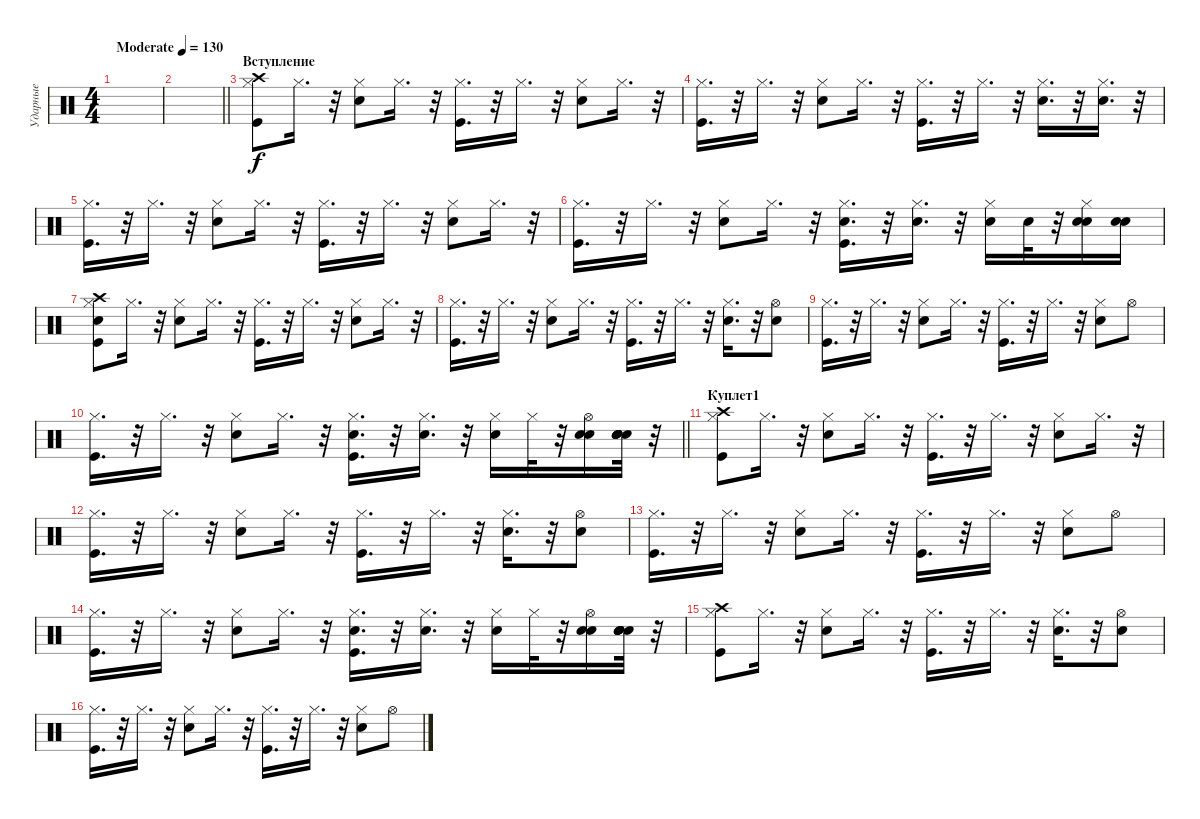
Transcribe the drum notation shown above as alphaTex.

\track ("Ударные" "Ударные") {instrument percussion}
\staff {score}
\articulation defaults
\ts (4 4)
\tempo (130 "Moderate")
\clef neutral
\ks c
|
\barLineRight lightlight
|
\section ("" "Вступление")
("Crash high (hit)" "Hi-Hat (closed)" "Kick (hit)").8 "Hi-Hat (closed)".16{d} r.32 ("Hi-Hat (closed)" "Snare (hit) 2").8 "Hi-Hat (closed)".16{d} r.32 ("Hi-Hat (closed)" "Kick (hit)").16{d} r.32 "Hi-Hat (closed)".16{d} r.32 ("Hi-Hat (closed)" "Snare (hit) 2").8 "Hi-Hat (closed)".16{d} r.32 |
("Hi-Hat (closed)" "Kick (hit)").16{d} r.32 "Hi-Hat (closed)".16{d} r.32 ("Snare (hit) 2" "Hi-Hat (closed)").8 "Hi-Hat (closed)".16{d} r.32 ("Hi-Hat (closed)" "Kick (hit)").16{d} r.32 "Hi-Hat (closed)".16{d} r.32 ("Snare (hit) 2" "Hi-Hat (closed)").16{d} r.32 ("Snare (hit) 2" "Hi-Hat (closed)").16{d} r.32 |
("Hi-Hat (closed)" "Kick (hit)").16{d} r.32 "Hi-Hat (closed)".16{d} r.32 ("Hi-Hat (closed)" "Snare (hit) 2").8 "Hi-Hat (closed)".16{d} r.32 ("Hi-Hat (closed)" "Kick (hit)").16{d} r.32 "Hi-Hat (closed)".16{d} r.32 ("Hi-Hat (closed)" "Snare (hit) 2").8 "Hi-Hat (closed)".16{d} r.32 |
("Hi-Hat (closed)" "Kick (hit)").16{d} r.32 "Hi-Hat (closed)".16{d} r.32 ("Snare (hit) 2" "Hi-Hat (closed)").8 "Hi-Hat (closed)".16{d} r.32 ("Snare (hit) 2" "Hi-Hat (closed)" "Kick (hit)").16{d} r.32 ("Snare (hit) 2" "Hi-Hat (closed)").16{d} r.32 ("Snare (hit) 2" "Hi-Hat (closed)").16 "Snare (hit) 2".32 r.32 ("Electric Snare (hit)" "Snare (hit) 2" "Hi-Hat (closed)").16 ("Electric Snare (hit)" "Snare (hit) 2").16 |
("Electric Snare (hit)" "Crash high (hit)" "Hi-Hat (closed)" "Kick (hit)").8 "Hi-Hat (closed)".16{d} r.32 ("Hi-Hat (closed)" "Snare (hit) 2").8 "Hi-Hat (closed)".16{d} r.32 ("Hi-Hat (closed)" "Kick (hit)").16{d} r.32 "Hi-Hat (closed)".16{d} r.32 ("Hi-Hat (closed)" "Snare (hit) 2").8 "Hi-Hat (closed)".16{d} r.32 |
("Hi-Hat (closed)" "Kick (hit)").16{d} r.32 "Hi-Hat (closed)".16{d} r.32 ("Hi-Hat (closed)" "Snare (hit) 2").8 "Hi-Hat (closed)".16{d} r.32 ("Hi-Hat (closed)" "Kick (hit)").16{d} r.32 "Hi-Hat (closed)".16{d} r.32 ("Hi-Hat (closed)" "Snare (hit) 2").16{d} r.32 ("Hi-Hat (open)" "Snare (hit) 2").8 |
("Hi-Hat (closed)" "Kick (hit)").16{d} r.32 "Hi-Hat (closed)".16{d} r.32 ("Hi-Hat (closed)" "Snare (hit) 2").8 "Hi-Hat (closed)".16{d} r.32 ("Hi-Hat (closed)" "Kick (hit)").16{d} r.32 "Hi-Hat (closed)".16{d} r.32 ("Hi-Hat (closed)" "Snare (hit) 2").8 "Hi-Hat (open)".8 |
\barLineRight lightlight
("Hi-Hat (closed)" "Kick (hit)").16{d} r.32 "Hi-Hat (closed)".16{d} r.32 ("Hi-Hat (closed)" "Snare (hit) 2").8 "Hi-Hat (closed)".16{d} r.32 ("Snare (hit) 2" "Hi-Hat (closed)" "Kick (hit)").16{d} r.32 ("Snare (hit) 2" "Hi-Hat (closed)").16{d} r.32 ("Hi-Hat (closed)" "Snare (hit) 2").16 "Hi-Hat (closed)".32 r.32 ("Hi-Hat (open)" "Snare (hit) 2" "Snare (hit) 2").16 ("Snare (hit) 2" "Snare (hit) 2" "Snare (hit) 2" "Electric Snare (hit)" "Electric Snare (hit)").32 r.32 |
\section ("" "Куплет1")
("Crash high (hit)" "Hi-Hat (closed)" "Kick (hit)").8 "Hi-Hat (closed)".16{d} r.32 ("Hi-Hat (closed)" "Snare (hit) 2").8 "Hi-Hat (closed)".16{d} r.32 ("Hi-Hat (closed)" "Kick (hit)").16{d} r.32 "Hi-Hat (closed)".16{d} r.32 ("Hi-Hat (closed)" "Snare (hit) 2").8 "Hi-Hat (closed)".16{d} r.32 |
("Hi-Hat (closed)" "Kick (hit)").16{d} r.32 "Hi-Hat (closed)".16{d} r.32 ("Hi-Hat (closed)" "Snare (hit) 2").8 "Hi-Hat (closed)".16{d} r.32 ("Hi-Hat (closed)" "Kick (hit)").16{d} r.32 "Hi-Hat (closed)".16{d} r.32 ("Hi-Hat (closed)" "Snare (hit) 2").16{d} r.32 ("Hi-Hat (open)" "Snare (hit) 2").8 |
("Hi-Hat (closed)" "Kick (hit)").16{d} r.32 "Hi-Hat (closed)".16{d} r.32 ("Hi-Hat (closed)" "Snare (hit) 2").8 "Hi-Hat (closed)".16{d} r.32 ("Hi-Hat (closed)" "Kick (hit)").16{d} r.32 "Hi-Hat (closed)".16{d} r.32 ("Hi-Hat (closed)" "Snare (hit) 2").8 "Hi-Hat (open)".8 |
("Hi-Hat (closed)" "Kick (hit)").16{d} r.32 "Hi-Hat (closed)".16{d} r.32 ("Hi-Hat (closed)" "Snare (hit) 2").8 "Hi-Hat (closed)".16{d} r.32 ("Snare (hit) 2" "Hi-Hat (closed)" "Kick (hit)").16{d} r.32 ("Snare (hit) 2" "Hi-Hat (closed)").16{d} r.32 ("Hi-Hat (closed)" "Snare (hit) 2").16 "Hi-Hat (closed)".32 r.32 ("Hi-Hat (open)" "Snare (hit) 2" "Snare (hit) 2").16 ("Snare (hit) 2" "Snare (hit) 2" "Snare (hit) 2" "Electric Snare (hit)" "Electric Snare (hit)").32 r.32 |
("Crash high (hit)" "Hi-Hat (closed)" "Kick (hit)").8 "Hi-Hat (closed)".16{d} r.32 ("Hi-Hat (closed)" "Snare (hit) 2").8 "Hi-Hat (closed)".16{d} r.32 ("Hi-Hat (closed)" "Kick (hit)").16{d} r.32 "Hi-Hat (closed)".16{d} r.32 ("Hi-Hat (closed)" "Snare (hit) 2").16{d} r.32 ("Hi-Hat (open)" "Snare (hit) 2").8 |
("Hi-Hat (closed)" "Kick (hit)").16{d} r.32 "Hi-Hat (closed)".16{d} r.32 ("Hi-Hat (closed)" "Snare (hit) 2").8 "Hi-Hat (closed)".16{d} r.32 ("Hi-Hat (closed)" "Kick (hit)").16{d} r.32 "Hi-Hat (closed)".16{d} r.32 ("Hi-Hat (closed)" "Snare (hit) 2").8 "Hi-Hat (open)".8
